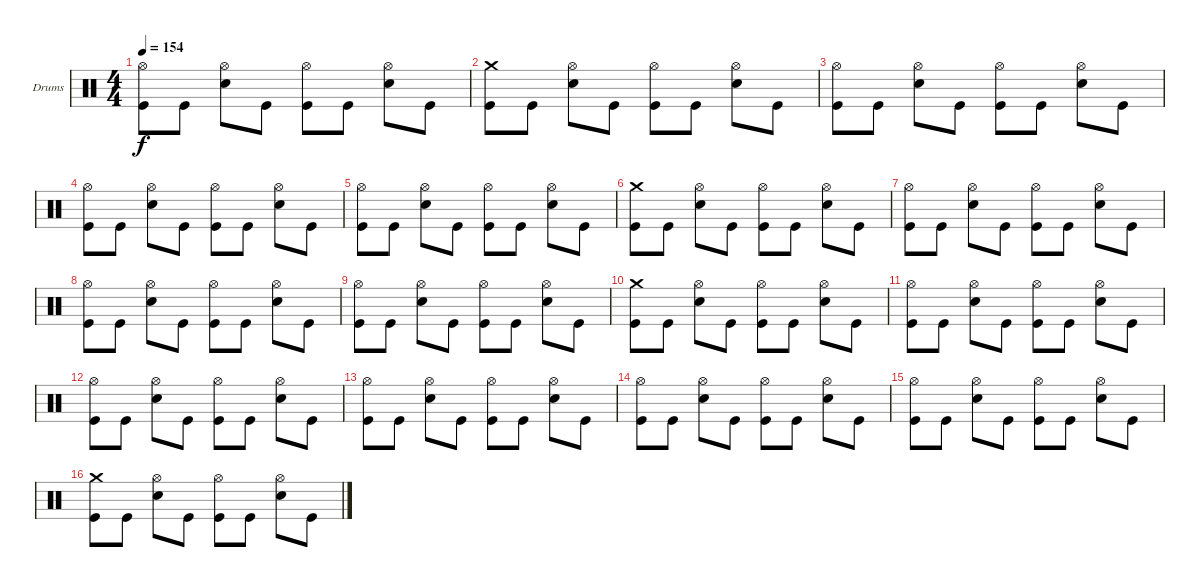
\defaultSystemsLayout 4
\bracketExtendMode groupsimilarinstruments
\firstSystemTrackNameOrientation horizontal
\otherSystemsTrackNameOrientation horizontal
\track ("Drumkit" "Drums") {instrument percussion}
\staff {score}
\articulation defaults
\ts (4 4)
\tempo 154
\clef neutral
\scale
1.02648
\ks c
("Hi-Hat (open)" "Kick (hit)").8{dy f} "Kick (hit)".8 ("Hi-Hat (open)" "Snare (hit) 2").8 "Kick (hit)".8 ("Hi-Hat (open)" "Kick (hit)").8 "Kick (hit)".8 ("Hi-Hat (open)" "Snare (hit) 2").8 "Kick (hit)".8 |
\scale
0.973518 ("Crash medium (hit)" "Kick (hit)").8 "Kick (hit)".8 ("Hi-Hat (open)" "Snare (hit) 2").8 "Kick (hit)".8 ("Hi-Hat (open)" "Kick (hit)").8 "Kick (hit)".8 ("Hi-Hat (open)" "Snare (hit) 2").8 "Kick (hit)".8 |
\scale
1.02648 ("Hi-Hat (open)" "Kick (hit)").8 "Kick (hit)".8 ("Hi-Hat (open)" "Snare (hit) 2").8 "Kick (hit)".8 ("Hi-Hat (open)" "Kick (hit)").8 "Kick (hit)".8 ("Hi-Hat (open)" "Snare (hit) 2").8 "Kick (hit)".8 |
\scale
0.973518 ("Hi-Hat (open)" "Kick (hit)").8 "Kick (hit)".8 ("Hi-Hat (open)" "Snare (hit) 2").8 "Kick (hit)".8 ("Hi-Hat (open)" "Kick (hit)").8 "Kick (hit)".8 ("Hi-Hat (open)" "Snare (hit) 2").8 "Kick (hit)".8 |
\scale
1.02648 ("Hi-Hat (open)" "Kick (hit)").8 "Kick (hit)".8 ("Hi-Hat (open)" "Snare (hit) 2").8 "Kick (hit)".8 ("Hi-Hat (open)" "Kick (hit)").8 "Kick (hit)".8 ("Hi-Hat (open)" "Snare (hit) 2").8 "Kick (hit)".8 |
\scale
0.973518 ("Crash medium (hit)" "Kick (hit)").8 "Kick (hit)".8 ("Hi-Hat (open)" "Snare (hit) 2").8 "Kick (hit)".8 ("Hi-Hat (open)" "Kick (hit)").8 "Kick (hit)".8 ("Hi-Hat (open)" "Snare (hit) 2").8 "Kick (hit)".8 |
\scale
1.02648 ("Hi-Hat (open)" "Kick (hit)").8 "Kick (hit)".8 ("Hi-Hat (open)" "Snare (hit) 2").8 "Kick (hit)".8 ("Hi-Hat (open)" "Kick (hit)").8 "Kick (hit)".8 ("Hi-Hat (open)" "Snare (hit) 2").8 "Kick (hit)".8 |
\scale
0.973518 ("Hi-Hat (open)" "Kick (hit)").8 "Kick (hit)".8 ("Hi-Hat (open)" "Snare (hit) 2").8 "Kick (hit)".8 ("Hi-Hat (open)" "Kick (hit)").8 "Kick (hit)".8 ("Hi-Hat (open)" "Snare (hit) 2").8 "Kick (hit)".8 |
\scale
1.02648 ("Hi-Hat (open)" "Kick (hit)").8 "Kick (hit)".8 ("Hi-Hat (open)" "Snare (hit) 2").8 "Kick (hit)".8 ("Hi-Hat (open)" "Kick (hit)").8 "Kick (hit)".8 ("Hi-Hat (open)" "Snare (hit) 2").8 "Kick (hit)".8 |
\scale
0.973518 ("Crash medium (hit)" "Kick (hit)").8 "Kick (hit)".8 ("Hi-Hat (open)" "Snare (hit) 2").8 "Kick (hit)".8 ("Hi-Hat (open)" "Kick (hit)").8 "Kick (hit)".8 ("Hi-Hat (open)" "Snare (hit) 2").8 "Kick (hit)".8 |
\scale
1.02648 ("Hi-Hat (open)" "Kick (hit)").8 "Kick (hit)".8 ("Hi-Hat (open)" "Snare (hit) 2").8 "Kick (hit)".8 ("Hi-Hat (open)" "Kick (hit)").8 "Kick (hit)".8 ("Hi-Hat (open)" "Snare (hit) 2").8 "Kick (hit)".8 |
\scale
0.973518 ("Hi-Hat (open)" "Kick (hit)").8 "Kick (hit)".8 ("Hi-Hat (open)" "Snare (hit) 2").8 "Kick (hit)".8 ("Hi-Hat (open)" "Kick (hit)").8 "Kick (hit)".8 ("Hi-Hat (open)" "Snare (hit) 2").8 "Kick (hit)".8 |
\scale
1.02648 ("Hi-Hat (open)" "Kick (hit)").8 "Kick (hit)".8 ("Hi-Hat (open)" "Snare (hit) 2").8 "Kick (hit)".8 ("Hi-Hat (open)" "Kick (hit)").8 "Kick (hit)".8 ("Hi-Hat (open)" "Snare (hit) 2").8 "Kick (hit)".8 |
\scale
0.973518 ("Hi-Hat (open)" "Kick (hit)").8 "Kick (hit)".8 ("Hi-Hat (open)" "Snare (hit) 2").8 "Kick (hit)".8 ("Hi-Hat (open)" "Kick (hit)").8 "Kick (hit)".8 ("Hi-Hat (open)" "Snare (hit) 2").8 "Kick (hit)".8 |
\scale
1.02648 ("Hi-Hat (open)" "Kick (hit)").8 "Kick (hit)".8 ("Hi-Hat (open)" "Snare (hit) 2").8 "Kick (hit)".8 ("Hi-Hat (open)" "Kick (hit)").8 "Kick (hit)".8 ("Hi-Hat (open)" "Snare (hit) 2").8 "Kick (hit)".8 |
\scale
0.973518 ("Crash medium (hit)" "Kick (hit)").8 "Kick (hit)".8 ("Hi-Hat (open)" "Snare (hit) 2").8 "Kick (hit)".8 ("Hi-Hat (open)" "Kick (hit)").8 "Kick (hit)".8 ("Hi-Hat (open)" "Snare (hit) 2").8 "Kick (hit)".8
